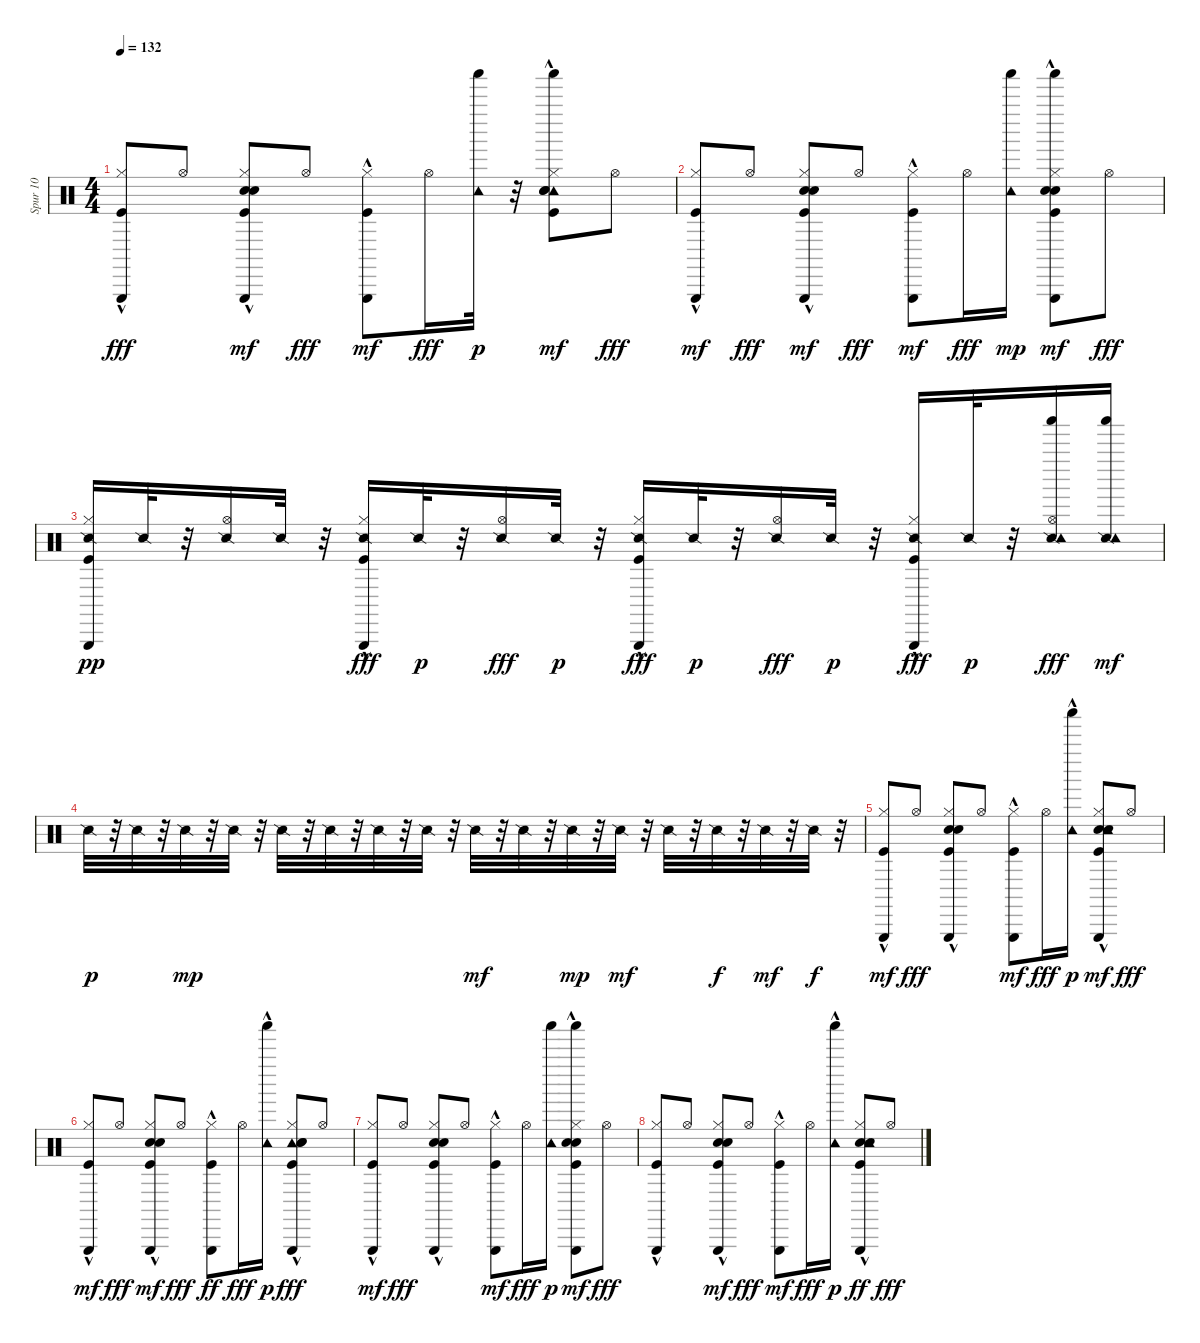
\track ("Spur 10" "Spur 10") {instrument percussion}
\staff {score}
\articulation defaults
\ts (4 4)
\tempo 132
\clef neutral
\ks c
("Triangle (hit)"{hac} "Kick (hit)"{hac} "Hi-Hat (closed)").8{dy fff} "Hi-Hat (open)".8 ("Kick (hit)"{hac} "Hand Clap (hit)"{hac} "Snare (hit) 2"{hac} "Hi-Hat (closed)" "Triangle (hit)"{hac}).8{dy mf} "Hi-Hat (open)".8{dy fff} ("Hi-Hat (closed)" "Kick (hit)"{hac} "Triangle (hit)"{hac}).8{dy mf} "Hi-Hat (open)".16{dy fff} ("Tambourine (hit)" "Shaker (hit)").32{dy p} r.32 ("Shaker (hit)" "Tambourine (hit)"{hac} "Hi-Hat (closed)" "Kick (hit)"{hac} "Hand Clap (hit)"{hac} "Snare (hit) 2"{hac}).8{dy mf} "Hi-Hat (open)".8{dy fff} |
("Hi-Hat (closed)" "Kick (hit)"{hac} "Triangle (hit)"{hac}).8{dy mf} "Hi-Hat (open)".8{dy fff} ("Hi-Hat (closed)" "Kick (hit)"{hac} "Snare (hit) 2"{hac} "Hand Clap (hit)"{hac} "Triangle (hit)"{hac}).8{dy mf} "Hi-Hat (open)".8{dy fff} ("Kick (hit)"{hac} "Hi-Hat (closed)" "Triangle (hit)"{hac}).8{dy mf} "Hi-Hat (open)".16{dy fff} ("Shaker (hit)" "Tambourine (hit)").16{dy mp} ("Shaker (hit)"{hac} "Triangle (hit)"{hac} "Hi-Hat (closed)" "Kick (hit)" "Hand Clap (hit)" "Snare (hit) 2").8{dy mf} "Hi-Hat (open)".8{dy fff} |
("Triangle (hit)" "Hi-Hat (closed)" "Kick (hit)" "Snare (side stick) 2").16{dy pp} "Snare (side stick) 2".32 r.32 ("Hi-Hat (open)" "Snare (side stick) 2").16 "Snare (side stick) 2".32 r.32 ("Snare (side stick) 2" "Hi-Hat (closed)" "Triangle (hit)"{hac} "Kick (hit)").16{dy fff} "Snare (side stick) 2".32{dy p} r.32 ("Snare (side stick) 2" "Hi-Hat (open)").16{dy fff} "Snare (side stick) 2".32{dy p} r.32 ("Snare (side stick) 2" "Triangle (hit)"{hac} "Kick (hit)"{hac} "Hi-Hat (closed)").16{dy fff} "Snare (side stick) 2".32{dy p} r.32 ("Snare (side stick) 2" "Hi-Hat (open)").16{dy fff} "Snare (side stick) 2".32{dy p} r.32 ("Snare (side stick) 2" "Triangle (hit)"{hac} "Hi-Hat (closed)" "Kick (hit)"{hac}).16{dy fff} "Snare (side stick) 2".32{dy p} r.32 ("Shaker (hit)" "Snare (side stick) 2" "Tambourine (hit)" "Hi-Hat (open)").16{dy fff} ("Shaker (hit)" "Snare (side stick) 2" "Tambourine (hit)").16{dy mf} |
"Snare (side stick) 2".32{dy p} r.32 "Snare (side stick) 2".32 r.32 "Snare (side stick) 2".32{dy mp} r.32 "Snare (side stick) 2".32 r.32 "Snare (side stick) 2".32 r.32 "Snare (side stick) 2".32 r.32 "Snare (side stick) 2".32 r.32 "Snare (side stick) 2".32 r.32 "Snare (side stick) 2".32{dy mf} r.32 "Snare (side stick) 2".32 r.32 "Snare (side stick) 2".32{dy mp} r.32 "Snare (side stick) 2".32{dy mf} r.32 "Snare (side stick) 2".32 r.32 "Snare (side stick) 2".32{dy f} r.32 "Snare (side stick) 2".32{dy mf} r.32 "Snare (side stick) 2".32{dy f} r.32 |
("Kick (hit)"{hac} "Hi-Hat (closed)" "Triangle (hit)"{hac}).8{dy mf} "Hi-Hat (open)".8{dy fff} ("Triangle (hit)"{hac} "Kick (hit)"{hac} "Hand Clap (hit)"{hac} "Snare (hit) 2"{hac} "Hi-Hat (closed)").8 "Hi-Hat (open)".8 ("Kick (hit)"{hac} "Hi-Hat (closed)" "Triangle (hit)"{hac}).8{dy mf} "Hi-Hat (open)".16{dy fff} ("Tambourine (hit)" "Shaker (hit)"{hac}).16{dy p} ("Kick (hit)"{hac} "Snare (hit) 2"{hac} "Hand Clap (hit)"{hac} "Hi-Hat (closed)" "Triangle (hit)"{hac} "Tambourine (hit)"{hac}).8{dy mf} "Hi-Hat (open)".8{dy fff} |
("Kick (hit)"{hac} "Hi-Hat (closed)" "Triangle (hit)"{hac}).8{dy mf} "Hi-Hat (open)".8{dy fff} ("Triangle (hit)"{hac} "Hi-Hat (closed)" "Kick (hit)"{hac} "Hand Clap (hit)"{hac} "Snare (hit) 2"{hac}).8{dy mf} "Hi-Hat (open)".8{dy fff} ("Triangle (hit)"{hac} "Kick (hit)"{hac} "Hi-Hat (closed)").8{dy ff} "Hi-Hat (open)".16{dy fff} ("Tambourine (hit)" "Shaker (hit)"{hac}).16{dy p} ("Tambourine (hit)"{hac} "Triangle (hit)"{hac} "Kick (hit)"{hac} "Snare (hit) 2"{hac} "Hand Clap (hit)"{hac} "Hi-Hat (closed)").8{dy fff} "Hi-Hat (open)".8 |
("Kick (hit)"{hac} "Hi-Hat (closed)" "Triangle (hit)"{hac}).8{dy mf} "Hi-Hat (open)".8{dy fff} ("Triangle (hit)"{hac} "Hi-Hat (closed)" "Hand Clap (hit)"{hac} "Snare (hit) 2"{hac} "Kick (hit)"{hac}).8 "Hi-Hat (open)".8 ("Hi-Hat (closed)" "Kick (hit)"{hac} "Triangle (hit)"{hac}).8{dy mf} "Hi-Hat (open)".16{dy fff} ("Shaker (hit)" "Tambourine (hit)").16{dy p} ("Shaker (hit)" "Triangle (hit)"{hac} "Hi-Hat (closed)" "Kick (hit)"{hac} "Hand Clap (hit)"{hac} "Snare (hit) 2"{hac}).8{dy mf} "Hi-Hat (open)".8{dy fff} |
("Triangle (hit)"{hac} "Hi-Hat (closed)" "Kick (hit)"{hac}).8 "Hi-Hat (open)".8 ("Hi-Hat (closed)" "Kick (hit)"{hac} "Snare (hit) 2"{hac} "Hand Clap (hit)"{hac} "Triangle (hit)"{hac}).8{dy mf} "Hi-Hat (open)".8{dy fff} ("Kick (hit)"{hac} "Hi-Hat (closed)" "Triangle (hit)"{hac}).8{dy mf} "Hi-Hat (open)".16{dy fff} ("Tambourine (hit)" "Shaker (hit)"{hac}).16{dy p} ("Triangle (hit)"{hac} "Hi-Hat (closed)" "Hand Clap (hit)"{hac} "Snare (hit) 2"{hac} "Kick (hit)"{hac} "Tambourine (hit)").8{dy ff} "Hi-Hat (open)".8{dy fff}
